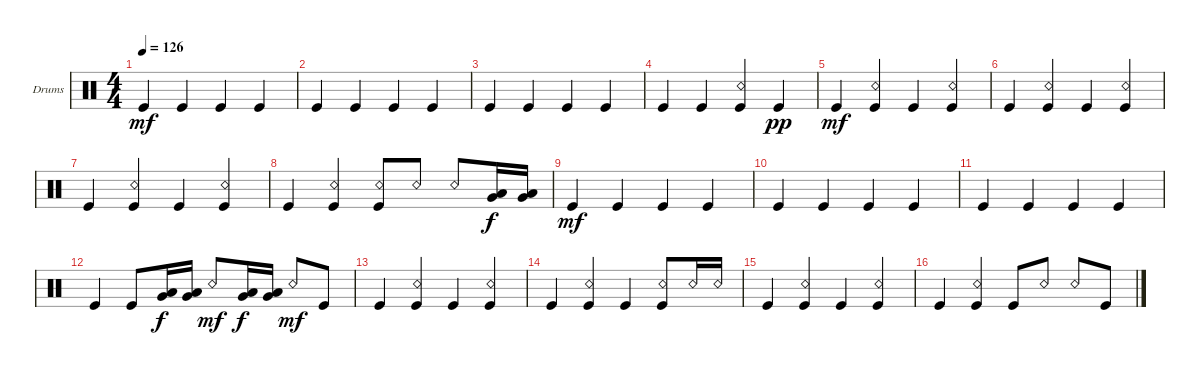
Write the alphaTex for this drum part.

\defaultSystemsLayout 4
\bracketExtendMode groupsimilarinstruments
\firstSystemTrackNameOrientation horizontal
\otherSystemsTrackNameOrientation horizontal
\track ("Drumkit" "Drums") {instrument percussion}
\staff {score}
\articulation defaults
\ts (4 4)
\tempo 126
\clef neutral
\ks c "Kick (hit)".4{dy mf} "Kick (hit)".4 "Kick (hit)".4 "Kick (hit)".4
|
"Kick (hit)".4 "Kick (hit)".4 "Kick (hit)".4 "Kick (hit)".4 |
"Kick (hit)".4 "Kick (hit)".4 "Kick (hit)".4 "Kick (hit)".4 |
"Kick (hit)".4 "Kick (hit)".4 ("Kick (hit)" "Snare (rim shot)").4 "Kick (hit)".4{dy pp} |
"Kick (hit)".4{dy mf} ("Kick (hit)" "Snare (rim shot)").4 "Kick (hit)".4 ("Kick (hit)" "Snare (rim shot)").4 |
"Kick (hit)".4 ("Kick (hit)" "Snare (rim shot)").4 "Kick (hit)".4 ("Kick (hit)" "Snare (rim shot)").4 |
"Kick (hit)".4 ("Kick (hit)" "Snare (rim shot)").4 "Kick (hit)".4 ("Kick (hit)" "Snare (rim shot)").4 |
"Kick (hit)".4 ("Kick (hit)" "Snare (rim shot)").4 ("Kick (hit)" "Snare (rim shot)").8 "Snare (rim shot)".8 "Snare (rim shot)".8 ("Very Low Tom (hit)" "Low Tom (hit)").16{dy f} ("Low Tom (hit)" "Very Low Tom (hit)").16 |
"Kick (hit)".4{dy mf} "Kick (hit)".4 "Kick (hit)".4 "Kick (hit)".4 |
"Kick (hit)".4 "Kick (hit)".4 "Kick (hit)".4 "Kick (hit)".4 |
"Kick (hit)".4 "Kick (hit)".4 "Kick (hit)".4 "Kick (hit)".4 |
"Kick (hit)".4 "Kick (hit)".8 ("Low Tom (hit)" "Very Low Tom (hit)").16{dy f} ("Low Tom (hit)" "Very Low Tom (hit)").16 "Snare (rim shot)".8{dy mf} ("Low Tom (hit)" "Very Low Tom (hit)").16{dy f} ("Low Tom (hit)" "Very Low Tom (hit)").16 "Snare (rim shot)".8{dy mf} "Kick (hit)".8 |
"Kick (hit)".4 ("Kick (hit)" "Snare (rim shot)").4 "Kick (hit)".4 ("Kick (hit)" "Snare (rim shot)").4 |
"Kick (hit)".4 ("Kick (hit)" "Snare (rim shot)").4 "Kick (hit)".4 ("Kick (hit)" "Snare (rim shot)").8 "Snare (rim shot)".16 "Snare (rim shot)".16 |
"Kick (hit)".4 ("Kick (hit)" "Snare (rim shot)").4 "Kick (hit)".4 ("Kick (hit)" "Snare (rim shot)").4 |
"Kick (hit)".4 ("Kick (hit)" "Snare (rim shot)").4 "Kick (hit)".8 "Snare (rim shot)".8 "Snare (rim shot)".8 "Kick (hit)".8
